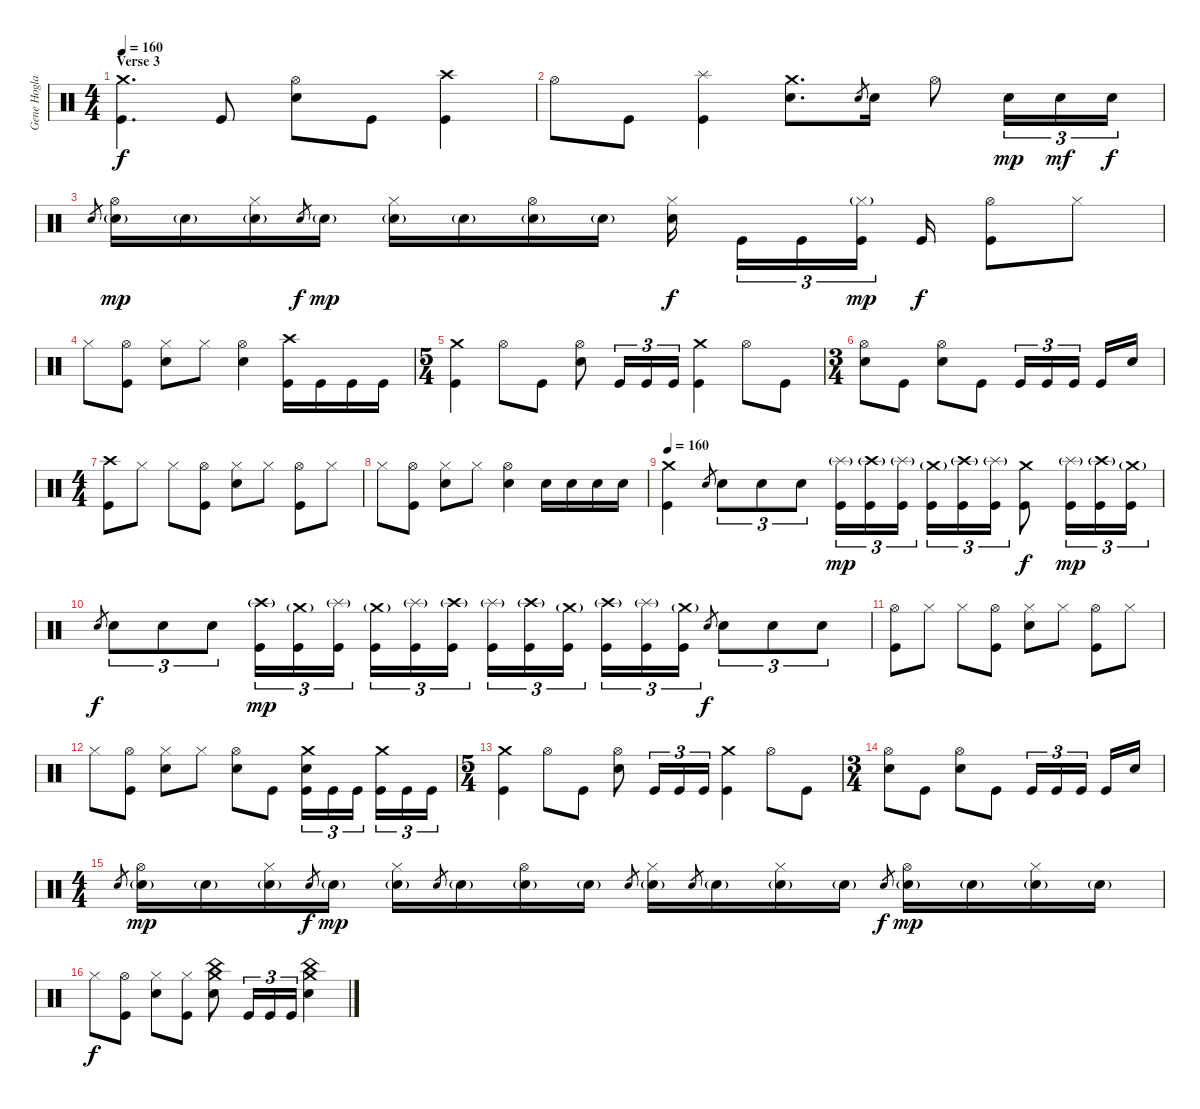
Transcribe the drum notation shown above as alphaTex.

\track ("Gene Hoglan" "Gene Hogla") {instrument percussion}
\staff {score}
\articulation defaults
\ts (4 4)
\section ("" "Verse 3")
\tempo 160
\clef neutral
\ks c
("Crash medium (hit)" "Kick (hit)").4{d dy f} "Kick (hit)".8 ("Hi-Hat (open)" "Electric Snare (hit)").8 "Kick (hit)".8 ("Crash high (hit)" "Kick (hit)").4 |
"Hi-Hat (open)".8 "Kick (hit)".8 ("Splash (hit)" "Kick (hit)").4 ("Crash medium (hit)" "Electric Snare (hit)").8{d} "Electric Snare (hit)".8{gr} "Electric Snare (hit)".16 "Hi-Hat (open)".8 "Electric Snare (hit)".16{tu (3 2) dy mp} "Electric Snare (hit)".16{tu (3 2) dy mf} "Electric Snare (hit)".16{tu (3 2) dy f} |
"Electric Snare (hit)".8{gr} ("Hi-Hat (open)" "Electric Snare (hit)"{g}).16{dy mp} "Electric Snare (hit)"{g}.16 ("Hi-Hat (closed)" "Electric Snare (hit)"{g}).16 "Electric Snare (hit)".8{gr dy f} "Electric Snare (hit)"{g}.16{dy mp} ("Hi-Hat (closed)" "Electric Snare (hit)"{g}).16 "Electric Snare (hit)"{g}.16 ("Hi-Hat (open)" "Electric Snare (hit)"{g}).16 "Electric Snare (hit)"{g}.16 ("Hi-Hat (closed)" "Electric Snare (hit)").16{dy f} "Kick (hit)".16{tu (3 2)} "Kick (hit)".16{tu (3 2)} ("Hi-Hat (closed)"{g} "Kick (hit)").16{tu (3 2) dy mp} "Kick (hit)".16{dy f} ("Hi-Hat (open)" "Kick (hit)").8 "Hi-Hat (closed)".8 |
"Hi-Hat (closed)".8 ("Hi-Hat (open)" "Kick (hit)").8 ("Hi-Hat (closed)" "Electric Snare (hit)").8 "Hi-Hat (closed)".8 ("Hi-Hat (open)" "Electric Snare (hit)").4 ("Crash high (hit)" "Kick (hit)").16 "Kick (hit)".16 "Kick (hit)".16 "Kick (hit)".16 |
\ts (5 4)
("Crash medium (hit)" "Kick (hit)").4 "Hi-Hat (open)".8 "Kick (hit)".8 ("Hi-Hat (open)" "Electric Snare (hit)").8 "Kick (hit)".16{tu (3 2)} "Kick (hit)".16{tu (3 2)} "Kick (hit)".16{tu (3 2)} ("Crash medium (hit)" "Kick (hit)").4 "Hi-Hat (open)".8 "Kick (hit)".8 |
\ts (3 4)
("Hi-Hat (open)" "Electric Snare (hit)").8 "Kick (hit)".8 ("Hi-Hat (open)" "Electric Snare (hit)").8 "Kick (hit)".8 "Kick (hit)".16{tu (3 2)} "Kick (hit)".16{tu (3 2)} "Kick (hit)".16{tu (3 2)} "Kick (hit)".16 "Electric Snare (hit)".16 |
\ts (4 4)
("Crash high (hit)" "Kick (hit)").8 "Hi-Hat (closed)".8 "Hi-Hat (closed)".8 ("Hi-Hat (open)" "Kick (hit)").8 ("Hi-Hat (closed)" "Electric Snare (hit)").8 "Hi-Hat (closed)".8 ("Hi-Hat (open)" "Kick (hit)").8 "Hi-Hat (closed)".8 |
"Hi-Hat (closed)".8 ("Hi-Hat (open)" "Kick (hit)").8 ("Hi-Hat (closed)" "Electric Snare (hit)").8 "Hi-Hat (closed)".8 ("Hi-Hat (open)" "Electric Snare (hit)").4 "Electric Snare (hit)".16 "Electric Snare (hit)".16 "Electric Snare (hit)".16 "Electric Snare (hit)".16 |
\tempo 160
("Crash medium (hit)" "Kick (hit)").4 "Electric Snare (hit)".8{gr} "Electric Snare (hit)".8{tu (3 2)} "Electric Snare (hit)".8{tu (3 2)} "Electric Snare (hit)".8{tu (3 2)} ("Splash (hit)"{g} "Kick (hit)").16{tu (3 2) dy mp} ("Crash high (hit)"{g} "Kick (hit)").16{tu (3 2)} ("Splash (hit)"{g} "Kick (hit)").16{tu (3 2)} ("Crash medium (hit)"{g} "Kick (hit)").16{tu (3 2)} ("Crash high (hit)"{g} "Kick (hit)").16{tu (3 2)} ("Splash (hit)"{g} "Kick (hit)").16{tu (3 2)} ("Crash medium (hit)" "Kick (hit)").8{dy f} ("Splash (hit)"{g} "Kick (hit)").16{tu (3 2) dy mp} ("Crash high (hit)"{g} "Kick (hit)").16{tu (3 2)} ("Crash medium (hit)"{g} "Kick (hit)").16{tu (3 2)} |
"Electric Snare (hit)".8{gr dy f} "Electric Snare (hit)".8{tu (3 2)} "Electric Snare (hit)".8{tu (3 2)} "Electric Snare (hit)".8{tu (3 2)} ("Crash high (hit)"{g} "Kick (hit)").16{tu (3 2) dy mp} ("Crash medium (hit)"{g} "Kick (hit)").16{tu (3 2)} ("Splash (hit)"{g} "Kick (hit)").16{tu (3 2)} ("Crash medium (hit)"{g} "Kick (hit)").16{tu (3 2)} ("Splash (hit)"{g} "Kick (hit)").16{tu (3 2)} ("Crash high (hit)"{g} "Kick (hit)").16{tu (3 2)} ("Splash (hit)"{g} "Kick (hit)").16{tu (3 2)} ("Crash high (hit)"{g} "Kick (hit)").16{tu (3 2)} ("Crash medium (hit)"{g} "Kick (hit)").16{tu (3 2)} ("Crash high (hit)"{g} "Kick (hit)").16{tu (3 2)} ("Splash (hit)"{g} "Kick (hit)").16{tu (3 2)} ("Crash medium (hit)"{g} "Kick (hit)").16{tu (3 2)} "Electric Snare (hit)".8{gr dy f} "Electric Snare (hit)".8{tu (3 2)} "Electric Snare (hit)".8{tu (3 2)} "Electric Snare (hit)".8{tu (3 2)} |
("Hi-Hat (open)" "Kick (hit)").8 "Hi-Hat (closed)".8 "Hi-Hat (closed)".8 ("Hi-Hat (open)" "Kick (hit)").8 ("Hi-Hat (closed)" "Electric Snare (hit)").8 "Hi-Hat (closed)".8 ("Hi-Hat (open)" "Kick (hit)").8 "Hi-Hat (closed)".8 |
"Hi-Hat (closed)".8 ("Hi-Hat (open)" "Kick (hit)").8 ("Hi-Hat (closed)" "Electric Snare (hit)").8 "Hi-Hat (closed)".8 ("Hi-Hat (open)" "Electric Snare (hit)").8 "Kick (hit)".8 ("Crash medium (hit)" "Electric Snare (hit)" "Kick (hit)").16{tu (3 2)} "Kick (hit)".16{tu (3 2)} "Kick (hit)".16{tu (3 2)} ("Crash medium (hit)" "Kick (hit)").16{tu (3 2)} "Kick (hit)".16{tu (3 2)} "Kick (hit)".16{tu (3 2)} |
\ts (5 4)
("Crash medium (hit)" "Kick (hit)").4 "Hi-Hat (open)".8 "Kick (hit)".8 ("Hi-Hat (open)" "Electric Snare (hit)").8 "Kick (hit)".16{tu (3 2)} "Kick (hit)".16{tu (3 2)} "Kick (hit)".16{tu (3 2)} ("Crash medium (hit)" "Kick (hit)").4 "Hi-Hat (open)".8 "Kick (hit)".8 |
\ts (3 4)
("Hi-Hat (open)" "Electric Snare (hit)").8 "Kick (hit)".8 ("Hi-Hat (open)" "Electric Snare (hit)").8 "Kick (hit)".8 "Kick (hit)".16{tu (3 2)} "Kick (hit)".16{tu (3 2)} "Kick (hit)".16{tu (3 2)} "Kick (hit)".16 "Electric Snare (hit)".16 |
\ts (4 4)
"Electric Snare (hit)".8{gr} ("Hi-Hat (open)" "Electric Snare (hit)"{g}).16{dy mp} "Electric Snare (hit)"{g}.16 ("Hi-Hat (closed)" "Electric Snare (hit)"{g}).16 "Electric Snare (hit)".8{gr dy f} "Electric Snare (hit)"{g}.16{dy mp} ("Hi-Hat (closed)" "Electric Snare (hit)"{g}).16 "Electric Snare (hit)".8{gr} "Electric Snare (hit)"{g}.16 ("Hi-Hat (open)" "Electric Snare (hit)"{g}).16 "Electric Snare (hit)"{g}.16 "Electric Snare (hit)".8{gr} ("Hi-Hat (closed)" "Electric Snare (hit)"{g}).16 "Electric Snare (hit)".8{gr} "Electric Snare (hit)"{g}.16 ("Hi-Hat (closed)" "Electric Snare (hit)"{g}).16 "Electric Snare (hit)"{g}.16 "Electric Snare (hit)".8{gr dy f} ("Hi-Hat (open)" "Electric Snare (hit)"{g}).16{dy mp} "Electric Snare (hit)"{g}.16 ("Hi-Hat (closed)" "Electric Snare (hit)"{g}).16 "Electric Snare (hit)"{g}.16 |
"Hi-Hat (closed)".8{dy f} ("Hi-Hat (open)" "Kick (hit)").8 ("Hi-Hat (closed)" "Electric Snare (hit)").8 ("Hi-Hat (closed)" "Kick (hit)").8 ("Crash medium (hit)" "China (hit)" "Electric Snare (hit)").8 "Kick (hit)".16{tu (3 2)} "Kick (hit)".16{tu (3 2)} "Kick (hit)".16{tu (3 2)} ("Crash medium (hit)" "China (hit)" "Electric Snare (hit)").4
